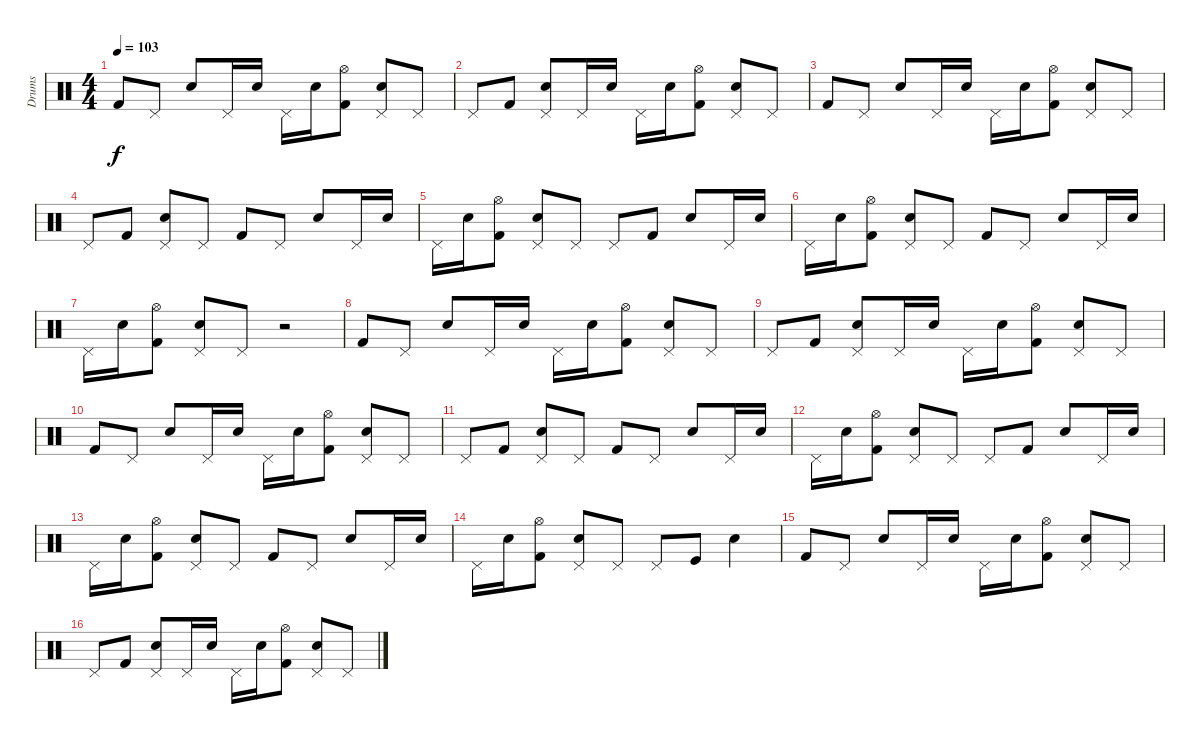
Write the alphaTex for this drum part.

\track ("Drums" "Drums") {instrument percussion}
\staff {score}
\articulation defaults
\ts (4 4)
\tempo 103
\clef neutral
\ks c "Kick (hit) 2".8{dy f} "Pedal Hi-Hat (hit)".8 "Electric Snare (hit)".8 "Pedal Hi-Hat (hit)".16 "Electric Snare (hit)".16 "Pedal Hi-Hat (hit)".16 "Electric Snare (hit)".16
("Hi-Hat (open)" "Kick (hit) 2").8 ("Pedal Hi-Hat (hit)" "Electric Snare (hit)").8 "Pedal Hi-Hat (hit)".8 |
"Pedal Hi-Hat (hit)".8 "Kick (hit) 2".8 ("Pedal Hi-Hat (hit)" "Electric Snare (hit)").8 "Pedal Hi-Hat (hit)".16 "Electric Snare (hit)".16 "Pedal Hi-Hat (hit)".16 "Electric Snare (hit)".16 ("Hi-Hat (open)" "Kick (hit) 2").8 ("Pedal Hi-Hat (hit)" "Electric Snare (hit)").8 "Pedal Hi-Hat (hit)".8 |
"Kick (hit) 2".8 "Pedal Hi-Hat (hit)".8 "Electric Snare (hit)".8 "Pedal Hi-Hat (hit)".16 "Electric Snare (hit)".16 "Pedal Hi-Hat (hit)".16 "Electric Snare (hit)".16 ("Hi-Hat (open)" "Kick (hit) 2").8 ("Pedal Hi-Hat (hit)" "Electric Snare (hit)").8 "Pedal Hi-Hat (hit)".8 |
"Pedal Hi-Hat (hit)".8 "Kick (hit) 2".8 ("Pedal Hi-Hat (hit)" "Electric Snare (hit)").8 "Pedal Hi-Hat (hit)".8 "Kick (hit) 2".8 "Pedal Hi-Hat (hit)".8 "Electric Snare (hit)".8 "Pedal Hi-Hat (hit)".16 "Electric Snare (hit)".16 |
"Pedal Hi-Hat (hit)".16 "Electric Snare (hit)".16 ("Hi-Hat (open)" "Kick (hit) 2").8 ("Pedal Hi-Hat (hit)" "Electric Snare (hit)").8 "Pedal Hi-Hat (hit)".8 "Pedal Hi-Hat (hit)".8 "Kick (hit) 2".8 "Electric Snare (hit)".8 "Pedal Hi-Hat (hit)".16 "Electric Snare (hit)".16 |
"Pedal Hi-Hat (hit)".16 "Electric Snare (hit)".16 ("Hi-Hat (open)" "Kick (hit) 2").8 ("Pedal Hi-Hat (hit)" "Electric Snare (hit)").8 "Pedal Hi-Hat (hit)".8 "Kick (hit) 2".8 "Pedal Hi-Hat (hit)".8 "Electric Snare (hit)".8 "Pedal Hi-Hat (hit)".16 "Electric Snare (hit)".16 |
"Pedal Hi-Hat (hit)".16 "Electric Snare (hit)".16 ("Hi-Hat (open)" "Kick (hit) 2").8 ("Pedal Hi-Hat (hit)" "Electric Snare (hit)").8 "Pedal Hi-Hat (hit)".8 r.2 |
"Kick (hit) 2".8 "Pedal Hi-Hat (hit)".8 "Electric Snare (hit)".8 "Pedal Hi-Hat (hit)".16 "Electric Snare (hit)".16 "Pedal Hi-Hat (hit)".16 "Electric Snare (hit)".16 ("Hi-Hat (open)" "Kick (hit) 2").8 ("Pedal Hi-Hat (hit)" "Electric Snare (hit)").8 "Pedal Hi-Hat (hit)".8 |
"Pedal Hi-Hat (hit)".8 "Kick (hit) 2".8 ("Pedal Hi-Hat (hit)" "Electric Snare (hit)").8 "Pedal Hi-Hat (hit)".16 "Electric Snare (hit)".16 "Pedal Hi-Hat (hit)".16 "Electric Snare (hit)".16 ("Hi-Hat (open)" "Kick (hit) 2").8 ("Pedal Hi-Hat (hit)" "Electric Snare (hit)").8 "Pedal Hi-Hat (hit)".8 |
"Kick (hit) 2".8 "Pedal Hi-Hat (hit)".8 "Electric Snare (hit)".8 "Pedal Hi-Hat (hit)".16 "Electric Snare (hit)".16 "Pedal Hi-Hat (hit)".16 "Electric Snare (hit)".16 ("Hi-Hat (open)" "Kick (hit) 2").8 ("Pedal Hi-Hat (hit)" "Electric Snare (hit)").8 "Pedal Hi-Hat (hit)".8 |
"Pedal Hi-Hat (hit)".8 "Kick (hit) 2".8 ("Pedal Hi-Hat (hit)" "Electric Snare (hit)").8 "Pedal Hi-Hat (hit)".8 "Kick (hit) 2".8 "Pedal Hi-Hat (hit)".8 "Electric Snare (hit)".8 "Pedal Hi-Hat (hit)".16 "Electric Snare (hit)".16 |
"Pedal Hi-Hat (hit)".16 "Electric Snare (hit)".16 ("Hi-Hat (open)" "Kick (hit) 2").8 ("Pedal Hi-Hat (hit)" "Electric Snare (hit)").8 "Pedal Hi-Hat (hit)".8 "Pedal Hi-Hat (hit)".8 "Kick (hit) 2".8 "Electric Snare (hit)".8 "Pedal Hi-Hat (hit)".16 "Electric Snare (hit)".16 |
"Pedal Hi-Hat (hit)".16 "Electric Snare (hit)".16 ("Hi-Hat (open)" "Kick (hit) 2").8 ("Pedal Hi-Hat (hit)" "Electric Snare (hit)").8 "Pedal Hi-Hat (hit)".8 "Kick (hit) 2".8 "Pedal Hi-Hat (hit)".8 "Electric Snare (hit)".8 "Pedal Hi-Hat (hit)".16 "Electric Snare (hit)".16 |
"Pedal Hi-Hat (hit)".16 "Electric Snare (hit)".16 ("Hi-Hat (open)" "Kick (hit) 2").8 ("Pedal Hi-Hat (hit)" "Electric Snare (hit)").8 "Pedal Hi-Hat (hit)".8 "Pedal Hi-Hat (hit)".8 "Kick (hit)".8 "Electric Snare (hit)".4 |
"Kick (hit) 2".8 "Pedal Hi-Hat (hit)".8 "Electric Snare (hit)".8 "Pedal Hi-Hat (hit)".16 "Electric Snare (hit)".16 "Pedal Hi-Hat (hit)".16 "Electric Snare (hit)".16 ("Hi-Hat (open)" "Kick (hit) 2").8 ("Pedal Hi-Hat (hit)" "Electric Snare (hit)").8 "Pedal Hi-Hat (hit)".8 |
"Pedal Hi-Hat (hit)".8 "Kick (hit) 2".8 ("Pedal Hi-Hat (hit)" "Electric Snare (hit)").8 "Pedal Hi-Hat (hit)".16 "Electric Snare (hit)".16 "Pedal Hi-Hat (hit)".16 "Electric Snare (hit)".16 ("Hi-Hat (open)" "Kick (hit) 2").8 ("Pedal Hi-Hat (hit)" "Electric Snare (hit)").8 "Pedal Hi-Hat (hit)".8
